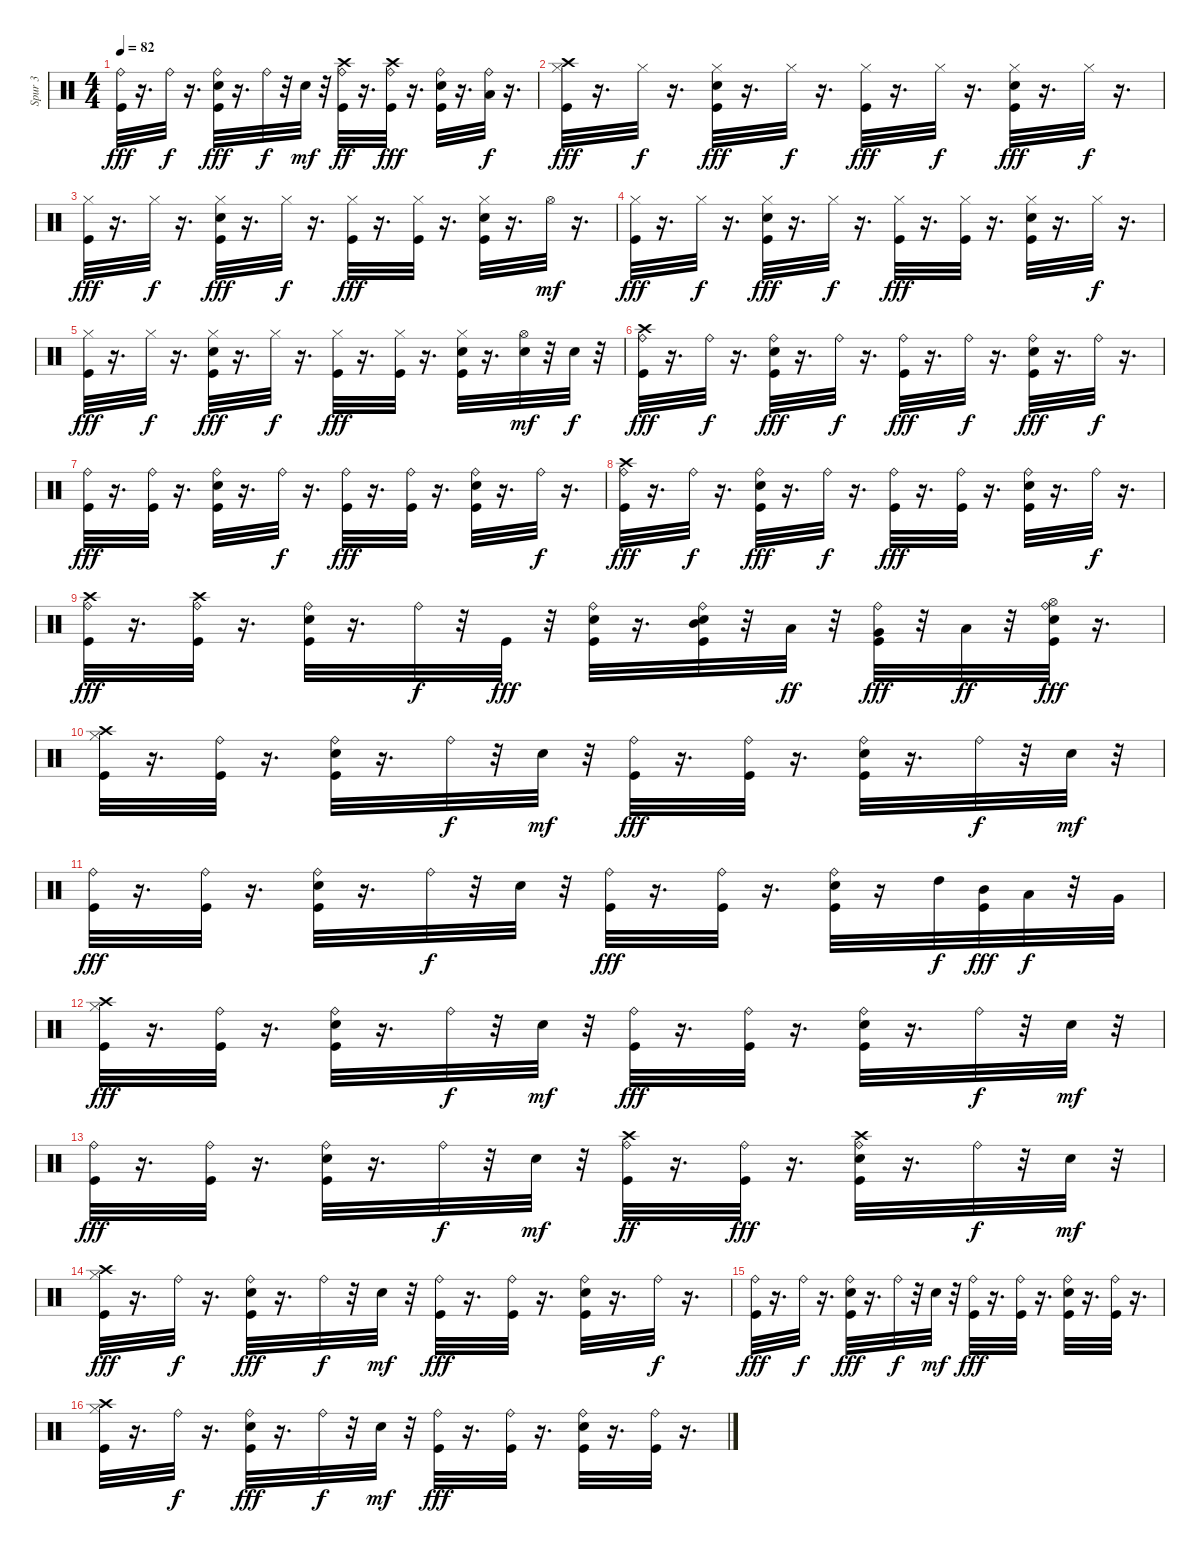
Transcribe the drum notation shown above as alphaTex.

\track ("Spur 3" "Spur 3") {instrument percussion}
\staff {score}
\articulation defaults
\ts (4 4)
\tempo 82
\clef neutral
\ks c
("Ride (bell)" "Kick (hit)").32{dy fff} r.16{d} "Ride (bell)".32{dy f} r.16{d} ("Snare (hit) 2" "Kick (hit)" "Ride (bell)").32{dy fff} r.16{d} "Ride (bell)".32{dy f} r.32 "Snare (hit) 2".32{dy mf} r.32 ("Ride (bell)" "Kick (hit)" "Crash high (hit)").32{dy ff} r.16{d} ("Kick (hit)" "Crash high (hit)" "Ride (bell)").32{dy fff} r.16{d} ("Kick (hit)" "Snare (hit) 2" "Ride (bell)").32 r.16{d} ("Ride (bell)" "Low Floor Tom (hit)").32{dy f} r.16{d} |
("Hi-Hat (closed)" "Crash high (hit)" "Kick (hit)").32{dy fff} r.16{d} "Hi-Hat (closed)".32{dy f} r.16{d} ("Hi-Hat (closed)" "Snare (hit) 2" "Kick (hit)").32{dy fff} r.16{d} "Hi-Hat (closed)".32{dy f} r.16{d} ("Hi-Hat (closed)" "Kick (hit)").32{dy fff} r.16{d} "Hi-Hat (closed)".32{dy f} r.16{d} ("Hi-Hat (closed)" "Snare (hit) 2" "Kick (hit)").32{dy fff} r.16{d} "Hi-Hat (closed)".32{dy f} r.16{d} |
("Kick (hit)" "Hi-Hat (closed)").32{dy fff} r.16{d} "Hi-Hat (closed)".32{dy f} r.16{d} ("Snare (hit) 2" "Kick (hit)" "Hi-Hat (closed)").32{dy fff} r.16{d} "Hi-Hat (closed)".32{dy f} r.16{d} ("Kick (hit)" "Hi-Hat (closed)").32{dy fff} r.16{d} ("Kick (hit)" "Hi-Hat (closed)").32 r.16{d} ("Snare (hit) 2" "Kick (hit)" "Hi-Hat (closed)").32 r.16{d} "Hi-Hat (open)".32{dy mf} r.16{d} |
("Hi-Hat (closed)" "Kick (hit)").32{dy fff} r.16{d} "Hi-Hat (closed)".32{dy f} r.16{d} ("Hi-Hat (closed)" "Snare (hit) 2" "Kick (hit)").32{dy fff} r.16{d} "Hi-Hat (closed)".32{dy f} r.16{d} ("Hi-Hat (closed)" "Kick (hit)").32{dy fff} r.16{d} ("Hi-Hat (closed)" "Kick (hit)").32 r.16{d} ("Hi-Hat (closed)" "Snare (hit) 2" "Kick (hit)").32 r.16{d} "Hi-Hat (closed)".32{dy f} r.16{d} |
("Kick (hit)" "Hi-Hat (closed)").32{dy fff} r.16{d} "Hi-Hat (closed)".32{dy f} r.16{d} ("Snare (hit) 2" "Kick (hit)" "Hi-Hat (closed)").32{dy fff} r.16{d} "Hi-Hat (closed)".32{dy f} r.16{d} ("Kick (hit)" "Hi-Hat (closed)").32{dy fff} r.16{d} ("Kick (hit)" "Hi-Hat (closed)").32 r.16{d} ("Snare (hit) 2" "Kick (hit)" "Hi-Hat (closed)").32 r.16{d} ("Snare (hit) 2" "Hi-Hat (open)").32{dy mf} r.32 "Snare (hit) 2".32{dy f} r.32 |
("Crash high (hit)" "Kick (hit)" "Ride (bell)").32{dy fff} r.16{d} "Ride (bell)".32{dy f} r.16{d} ("Snare (hit) 2" "Kick (hit)" "Ride (bell)").32{dy fff} r.16{d} "Ride (bell)".32{dy f} r.16{d} ("Kick (hit)" "Ride (bell)").32{dy fff} r.16{d} "Ride (bell)".32{dy f} r.16{d} ("Snare (hit) 2" "Kick (hit)" "Ride (bell)").32{dy fff} r.16{d} "Ride (bell)".32{dy f} r.16{d} |
("Kick (hit)" "Ride (bell)").32{dy fff} r.16{d} ("Kick (hit)" "Ride (bell)").32 r.16{d} ("Snare (hit) 2" "Kick (hit)" "Ride (bell)").32 r.16{d} "Ride (bell)".32{dy f} r.16{d} ("Kick (hit)" "Ride (bell)").32{dy fff} r.16{d} ("Kick (hit)" "Ride (bell)").32 r.16{d} ("Snare (hit) 2" "Kick (hit)" "Ride (bell)").32 r.16{d} "Ride (bell)".32{dy f} r.16{d} |
("Crash high (hit)" "Kick (hit)" "Ride (bell)").32{dy fff} r.16{d} "Ride (bell)".32{dy f} r.16{d} ("Snare (hit) 2" "Kick (hit)" "Ride (bell)").32{dy fff} r.16{d} "Ride (bell)".32{dy f} r.16{d} ("Kick (hit)" "Ride (bell)").32{dy fff} r.16{d} ("Kick (hit)" "Ride (bell)").32 r.16{d} ("Snare (hit) 2" "Kick (hit)" "Ride (bell)").32 r.16{d} "Ride (bell)".32{dy f} r.16{d} |
("Crash high (hit)" "Kick (hit)" "Ride (bell)").32{dy fff} r.16{d} ("Ride (bell)" "Crash high (hit)" "Kick (hit)").32 r.16{d} ("Snare (hit) 2" "Kick (hit)" "Ride (bell)").32 r.16{d} "Ride (bell)".32{dy f} r.32 "Kick (hit)".32{dy fff} r.32 ("Kick (hit)" "Snare (hit) 2" "Ride (bell)").32 r.16{d} ("Mid Tom (hit)" "Snare (hit) 2" "Kick (hit)" "Ride (bell)").32 r.32 "Low Tom (hit)".32{dy ff} r.32 ("Ride (bell)" "Very Low Tom (hit)" "Kick (hit)").32{dy fff} r.32 "Low Floor Tom (hit)".32{dy ff} r.32 ("Hi-Hat (open)" "Snare (hit) 2" "Kick (hit)" "Ride (bell)").32{dy fff} r.16{d} |
("Hi-Hat (closed)" "Crash high (hit)" "Kick (hit)").32 r.16{d} ("Kick (hit)" "Ride (bell)").32 r.16{d} ("Kick (hit)" "Ride (bell)" "Snare (hit) 2").32 r.16{d} "Ride (bell)".32{dy f} r.32 "Snare (hit) 2".32{dy mf} r.32 ("Ride (bell)" "Kick (hit)").32{dy fff} r.16{d} ("Kick (hit)" "Ride (bell)").32 r.16{d} ("Kick (hit)" "Snare (hit) 2" "Ride (bell)").32 r.16{d} "Ride (bell)".32{dy f} r.32 "Snare (hit) 2".32{dy mf} r.32 |
("Ride (bell)" "Kick (hit)").32{dy fff} r.16{d} ("Ride (bell)" "Kick (hit)").32 r.16{d} ("Ride (bell)" "Snare (hit) 2" "Kick (hit)").32 r.16{d} "Ride (bell)".32{dy f} r.32 "Snare (hit) 2".32 r.32 ("Ride (bell)" "Kick (hit)").32{dy fff} r.16{d} ("Ride (bell)" "Kick (hit)").32 r.16{d} ("Ride (bell)" "Snare (hit) 2" "Kick (hit)").32 r.16 "High Tom (hit)".32{dy f} ("Kick (hit)" "Mid Tom (hit)").32{dy fff} "Low Tom (hit)".32{dy f} r.32 "Very Low Tom (hit)".32 |
("Crash high (hit)" "Kick (hit)" "Hi-Hat (closed)").32{dy fff} r.16{d} ("Ride (bell)" "Kick (hit)").32 r.16{d} ("Ride (bell)" "Snare (hit) 2" "Kick (hit)").32 r.16{d} "Ride (bell)".32{dy f} r.32 "Snare (hit) 2".32{dy mf} r.32 ("Kick (hit)" "Ride (bell)").32{dy fff} r.16{d} ("Ride (bell)" "Kick (hit)").32 r.16{d} ("Snare (hit) 2" "Kick (hit)" "Ride (bell)").32 r.16{d} "Ride (bell)".32{dy f} r.32 "Snare (hit) 2".32{dy mf} r.32 |
("Kick (hit)" "Ride (bell)").32{dy fff} r.16{d} ("Kick (hit)" "Ride (bell)").32 r.16{d} ("Snare (hit) 2" "Kick (hit)" "Ride (bell)").32 r.16{d} "Ride (bell)".32{dy f} r.32 "Snare (hit) 2".32{dy mf} r.32 ("Kick (hit)" "Ride (bell)" "Crash high (hit)").32{dy ff} r.16{d} ("Kick (hit)" "Ride (bell)").32{dy fff} r.16{d} ("Kick (hit)" "Snare (hit) 2" "Crash high (hit)" "Ride (bell)").32 r.16{d} "Ride (bell)".32{dy f} r.32 "Snare (hit) 2".32{dy mf} r.32 |
("Crash high (hit)" "Kick (hit)" "Hi-Hat (closed)").32{dy fff} r.16{d} "Ride (bell)".32{dy f} r.16{d} ("Snare (hit) 2" "Kick (hit)" "Ride (bell)").32{dy fff} r.16{d} "Ride (bell)".32{dy f} r.32 "Snare (hit) 2".32{dy mf} r.32 ("Kick (hit)" "Ride (bell)").32{dy fff} r.16{d} ("Kick (hit)" "Ride (bell)").32 r.16{d} ("Snare (hit) 2" "Kick (hit)" "Ride (bell)").32 r.16{d} "Ride (bell)".32{dy f} r.16{d} |
("Kick (hit)" "Ride (bell)").32{dy fff} r.16{d} "Ride (bell)".32{dy f} r.16{d} ("Snare (hit) 2" "Kick (hit)" "Ride (bell)").32{dy fff} r.16{d} "Ride (bell)".32{dy f} r.32 "Snare (hit) 2".32{dy mf} r.32 ("Kick (hit)" "Ride (bell)").32{dy fff} r.16{d} ("Kick (hit)" "Ride (bell)").32 r.16{d} ("Kick (hit)" "Snare (hit) 2" "Ride (bell)").32 r.16{d} ("Ride (bell)" "Kick (hit)").32 r.16{d} |
("Crash high (hit)" "Kick (hit)" "Hi-Hat (closed)").32 r.16{d} "Ride (bell)".32{dy f} r.16{d} ("Snare (hit) 2" "Kick (hit)" "Ride (bell)").32{dy fff} r.16{d} "Ride (bell)".32{dy f} r.32 "Snare (hit) 2".32{dy mf} r.32 ("Kick (hit)" "Ride (bell)").32{dy fff} r.16{d} ("Kick (hit)" "Ride (bell)").32 r.16{d} ("Snare (hit) 2" "Kick (hit)" "Ride (bell)").32 r.16{d} ("Kick (hit)" "Ride (bell)").32 r.16{d}
